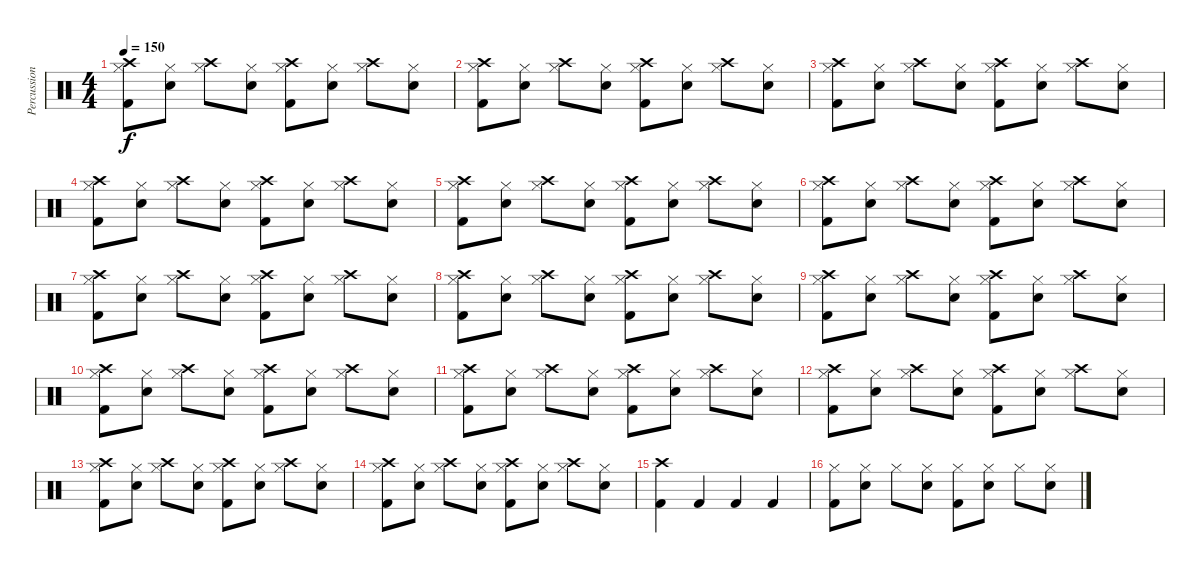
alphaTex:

\track ("Percussion" "Percussion") {instrument percussion}
\staff {score}
\articulation defaults
\ts (4 4)
\tempo 150
\clef neutral
\ks c
("Hi-Hat (closed)" "Kick (hit) 2" "Crash high (hit)").8{dy f} ("Hi-Hat (closed)" "Electric Snare (hit)").8 ("Hi-Hat (closed)" "Crash high (hit)").8 ("Hi-Hat (closed)" "Electric Snare (hit)").8 ("Hi-Hat (closed)" "Kick (hit) 2" "Crash high (hit)").8 ("Hi-Hat (closed)" "Electric Snare (hit)").8 ("Hi-Hat (closed)" "Crash high (hit)").8 ("Hi-Hat (closed)" "Electric Snare (hit)").8 |
("Hi-Hat (closed)" "Kick (hit) 2" "Crash high (hit)").8 ("Hi-Hat (closed)" "Electric Snare (hit)").8 ("Hi-Hat (closed)" "Crash high (hit)").8 ("Hi-Hat (closed)" "Electric Snare (hit)").8 ("Hi-Hat (closed)" "Kick (hit) 2" "Crash high (hit)").8 ("Hi-Hat (closed)" "Electric Snare (hit)").8 ("Hi-Hat (closed)" "Crash high (hit)").8 ("Hi-Hat (closed)" "Electric Snare (hit)").8 |
("Hi-Hat (closed)" "Kick (hit) 2" "Crash high (hit)").8 ("Hi-Hat (closed)" "Electric Snare (hit)").8 ("Hi-Hat (closed)" "Crash high (hit)").8 ("Hi-Hat (closed)" "Electric Snare (hit)").8 ("Hi-Hat (closed)" "Kick (hit) 2" "Crash high (hit)").8 ("Hi-Hat (closed)" "Electric Snare (hit)").8 ("Hi-Hat (closed)" "Crash high (hit)").8 ("Hi-Hat (closed)" "Electric Snare (hit)").8 |
("Hi-Hat (closed)" "Kick (hit) 2" "Crash high (hit)").8 ("Hi-Hat (closed)" "Electric Snare (hit)").8 ("Hi-Hat (closed)" "Crash high (hit)").8 ("Hi-Hat (closed)" "Electric Snare (hit)").8 ("Hi-Hat (closed)" "Kick (hit) 2" "Crash high (hit)").8 ("Hi-Hat (closed)" "Electric Snare (hit)").8 ("Hi-Hat (closed)" "Crash high (hit)").8 ("Hi-Hat (closed)" "Electric Snare (hit)").8 |
("Hi-Hat (closed)" "Kick (hit) 2" "Crash high (hit)").8 ("Hi-Hat (closed)" "Electric Snare (hit)").8 ("Hi-Hat (closed)" "Crash high (hit)").8 ("Hi-Hat (closed)" "Electric Snare (hit)").8 ("Hi-Hat (closed)" "Kick (hit) 2" "Crash high (hit)").8 ("Hi-Hat (closed)" "Electric Snare (hit)").8 ("Hi-Hat (closed)" "Crash high (hit)").8 ("Hi-Hat (closed)" "Electric Snare (hit)").8 |
("Hi-Hat (closed)" "Kick (hit) 2" "Crash high (hit)").8 ("Hi-Hat (closed)" "Electric Snare (hit)").8 ("Hi-Hat (closed)" "Crash high (hit)").8 ("Hi-Hat (closed)" "Electric Snare (hit)").8 ("Hi-Hat (closed)" "Kick (hit) 2" "Crash high (hit)").8 ("Hi-Hat (closed)" "Electric Snare (hit)").8 ("Hi-Hat (closed)" "Crash high (hit)").8 ("Hi-Hat (closed)" "Electric Snare (hit)").8 |
("Hi-Hat (closed)" "Kick (hit) 2" "Crash high (hit)").8 ("Hi-Hat (closed)" "Electric Snare (hit)").8 ("Hi-Hat (closed)" "Crash high (hit)").8 ("Hi-Hat (closed)" "Electric Snare (hit)").8 ("Hi-Hat (closed)" "Kick (hit) 2" "Crash high (hit)").8 ("Hi-Hat (closed)" "Electric Snare (hit)").8 ("Hi-Hat (closed)" "Crash high (hit)").8 ("Hi-Hat (closed)" "Electric Snare (hit)").8 |
("Hi-Hat (closed)" "Kick (hit) 2" "Crash high (hit)").8 ("Hi-Hat (closed)" "Electric Snare (hit)").8 ("Hi-Hat (closed)" "Crash high (hit)").8 ("Hi-Hat (closed)" "Electric Snare (hit)").8 ("Hi-Hat (closed)" "Kick (hit) 2" "Crash high (hit)").8 ("Hi-Hat (closed)" "Electric Snare (hit)").8 ("Hi-Hat (closed)" "Crash high (hit)").8 ("Hi-Hat (closed)" "Electric Snare (hit)").8 |
("Hi-Hat (closed)" "Kick (hit) 2" "Crash high (hit)").8 ("Hi-Hat (closed)" "Electric Snare (hit)").8 ("Hi-Hat (closed)" "Crash high (hit)").8 ("Hi-Hat (closed)" "Electric Snare (hit)").8 ("Hi-Hat (closed)" "Kick (hit) 2" "Crash high (hit)").8 ("Hi-Hat (closed)" "Electric Snare (hit)").8 ("Hi-Hat (closed)" "Crash high (hit)").8 ("Hi-Hat (closed)" "Electric Snare (hit)").8 |
("Hi-Hat (closed)" "Kick (hit) 2" "Crash high (hit)").8 ("Hi-Hat (closed)" "Electric Snare (hit)").8 ("Hi-Hat (closed)" "Crash high (hit)").8 ("Hi-Hat (closed)" "Electric Snare (hit)").8 ("Hi-Hat (closed)" "Kick (hit) 2" "Crash high (hit)").8 ("Hi-Hat (closed)" "Electric Snare (hit)").8 ("Hi-Hat (closed)" "Crash high (hit)").8 ("Hi-Hat (closed)" "Electric Snare (hit)").8 |
("Hi-Hat (closed)" "Kick (hit) 2" "Crash high (hit)").8 ("Hi-Hat (closed)" "Electric Snare (hit)").8 ("Hi-Hat (closed)" "Crash high (hit)").8 ("Hi-Hat (closed)" "Electric Snare (hit)").8 ("Hi-Hat (closed)" "Kick (hit) 2" "Crash high (hit)").8 ("Hi-Hat (closed)" "Electric Snare (hit)").8 ("Hi-Hat (closed)" "Crash high (hit)").8 ("Hi-Hat (closed)" "Electric Snare (hit)").8 |
("Hi-Hat (closed)" "Kick (hit) 2" "Crash high (hit)").8 ("Hi-Hat (closed)" "Electric Snare (hit)").8 ("Hi-Hat (closed)" "Crash high (hit)").8 ("Hi-Hat (closed)" "Electric Snare (hit)").8 ("Hi-Hat (closed)" "Kick (hit) 2" "Crash high (hit)").8 ("Hi-Hat (closed)" "Electric Snare (hit)").8 ("Hi-Hat (closed)" "Crash high (hit)").8 ("Hi-Hat (closed)" "Electric Snare (hit)").8 |
("Hi-Hat (closed)" "Kick (hit) 2" "Crash high (hit)").8 ("Hi-Hat (closed)" "Electric Snare (hit)").8 ("Hi-Hat (closed)" "Crash high (hit)").8 ("Hi-Hat (closed)" "Electric Snare (hit)").8 ("Hi-Hat (closed)" "Kick (hit) 2" "Crash high (hit)").8 ("Hi-Hat (closed)" "Electric Snare (hit)").8 ("Hi-Hat (closed)" "Crash high (hit)").8 ("Hi-Hat (closed)" "Electric Snare (hit)").8 |
("Hi-Hat (closed)" "Kick (hit) 2" "Crash high (hit)").8 ("Hi-Hat (closed)" "Electric Snare (hit)").8 ("Hi-Hat (closed)" "Crash high (hit)").8 ("Hi-Hat (closed)" "Electric Snare (hit)").8 ("Hi-Hat (closed)" "Kick (hit) 2" "Crash high (hit)").8 ("Hi-Hat (closed)" "Electric Snare (hit)").8 ("Hi-Hat (closed)" "Crash high (hit)").8 ("Hi-Hat (closed)" "Electric Snare (hit)").8 |
("Kick (hit) 2" "Crash high (hit)").4 "Kick (hit) 2".4 "Kick (hit) 2".4 "Kick (hit) 2".4 |
("Hi-Hat (closed)" "Kick (hit) 2").8 ("Hi-Hat (closed)" "Electric Snare (hit)").8 "Hi-Hat (closed)".8 ("Hi-Hat (closed)" "Electric Snare (hit)").8 ("Hi-Hat (closed)" "Kick (hit) 2").8 ("Hi-Hat (closed)" "Electric Snare (hit)").8 "Hi-Hat (closed)".8 ("Hi-Hat (closed)" "Electric Snare (hit)").8
